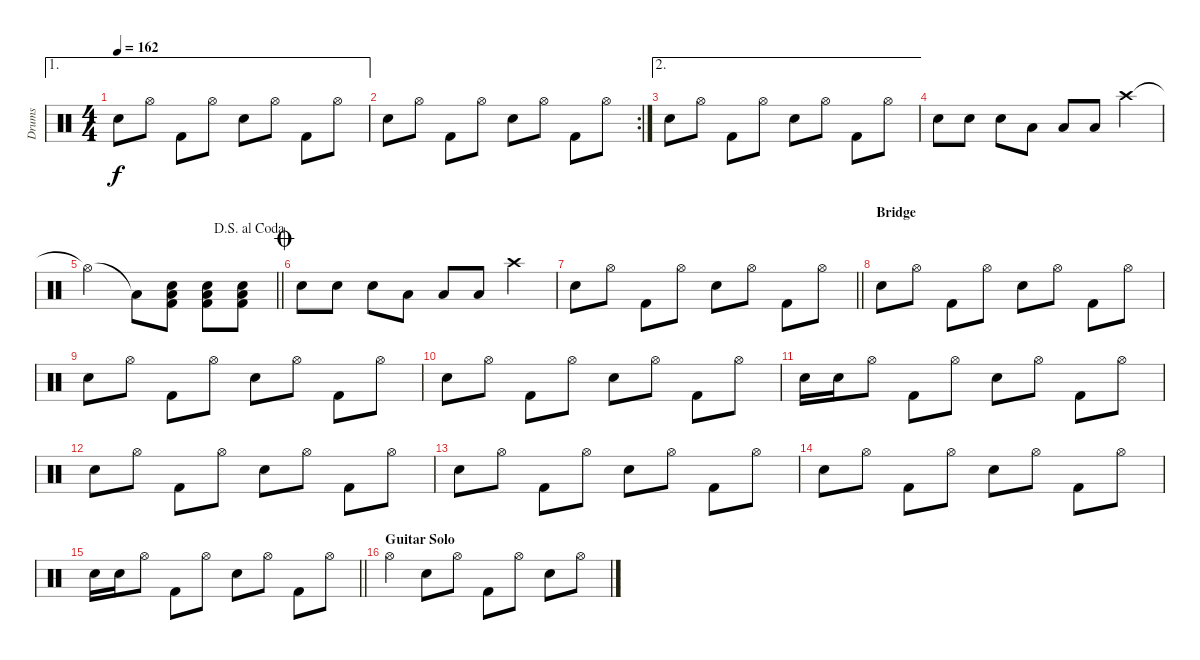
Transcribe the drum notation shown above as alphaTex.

\track ("Drums" "Drums") {instrument percussion}
\staff {score}
\articulation defaults
\ae 1
\ts (4 4)
\tempo 162
\clef neutral
\ks c "Electric Snare (hit)".8{dy f} "Hi-Hat (open)".8 "Kick (hit) 2".8 "Hi-Hat (open)".8 "Electric Snare (hit)".8 "Hi-Hat (open)".8 "Kick (hit) 2".8 "Hi-Hat (open)".8
|
\rc 2 "Electric Snare (hit)".8 "Hi-Hat (open)".8 "Kick (hit) 2".8 "Hi-Hat (open)".8 "Electric Snare (hit)".8 "Hi-Hat (open)".8 "Kick (hit) 2".8 "Hi-Hat (open)".8
|
\ae 2 "Electric Snare (hit)".8 "Hi-Hat (open)".8 "Kick (hit) 2".8 "Hi-Hat (open)".8 "Electric Snare (hit)".8 "Hi-Hat (open)".8 "Kick (hit) 2".8 "Hi-Hat (open)".8
|
"Electric Snare (hit)".8 "Electric Snare (hit)".8 "Electric Snare (hit)".8 "Low Tom (hit)".8 "Low Tom (hit)".8 "Low Tom (hit)".8 "Crash high (hit)".4 |
\jump dalsegnoalcoda
\barLineRight lightlight "Hi-Hat (open)"{t}.2 "Low Tom (hit)"{t}.8
("Low Tom (hit)" "Electric Snare (hit)" "Kick (hit) 2").8 ("Low Tom (hit)" "Electric Snare (hit)" "Kick (hit) 2").8 ("Low Tom (hit)" "Electric Snare (hit)" "Kick (hit) 2").8 |
\jump coda "Electric Snare (hit)".8 "Electric Snare (hit)".8 "Electric Snare (hit)".8 "Low Tom (hit)".8 "Low Tom (hit)".8 "Low Tom (hit)".8 "Crash high (hit)".4
|
\barLineRight lightlight "Electric Snare (hit)".8 "Hi-Hat (open)".8 "Kick (hit) 2".8 "Hi-Hat (open)".8 "Electric Snare (hit)".8 "Hi-Hat (open)".8 "Kick (hit) 2".8 "Hi-Hat (open)".8
|
\section ("" "Bridge")
"Electric Snare (hit)".8 "Hi-Hat (open)".8 "Kick (hit) 2".8 "Hi-Hat (open)".8 "Electric Snare (hit)".8 "Hi-Hat (open)".8 "Kick (hit) 2".8 "Hi-Hat (open)".8 |
"Electric Snare (hit)".8 "Hi-Hat (open)".8 "Kick (hit) 2".8 "Hi-Hat (open)".8 "Electric Snare (hit)".8 "Hi-Hat (open)".8 "Kick (hit) 2".8 "Hi-Hat (open)".8 |
"Electric Snare (hit)".8 "Hi-Hat (open)".8 "Kick (hit) 2".8 "Hi-Hat (open)".8 "Electric Snare (hit)".8 "Hi-Hat (open)".8 "Kick (hit) 2".8 "Hi-Hat (open)".8 |
"Electric Snare (hit)".16 "Electric Snare (hit)".16 "Hi-Hat (open)".8 "Kick (hit) 2".8 "Hi-Hat (open)".8 "Electric Snare (hit)".8 "Hi-Hat (open)".8 "Kick (hit) 2".8 "Hi-Hat (open)".8 |
"Electric Snare (hit)".8 "Hi-Hat (open)".8 "Kick (hit) 2".8 "Hi-Hat (open)".8 "Electric Snare (hit)".8 "Hi-Hat (open)".8 "Kick (hit) 2".8 "Hi-Hat (open)".8 |
"Electric Snare (hit)".8 "Hi-Hat (open)".8 "Kick (hit) 2".8 "Hi-Hat (open)".8 "Electric Snare (hit)".8 "Hi-Hat (open)".8 "Kick (hit) 2".8 "Hi-Hat (open)".8 |
"Electric Snare (hit)".8 "Hi-Hat (open)".8 "Kick (hit) 2".8 "Hi-Hat (open)".8 "Electric Snare (hit)".8 "Hi-Hat (open)".8 "Kick (hit) 2".8 "Hi-Hat (open)".8 |
\barLineRight lightlight "Electric Snare (hit)".16 "Electric Snare (hit)".16 "Hi-Hat (open)".8 "Kick (hit) 2".8 "Hi-Hat (open)".8 "Electric Snare (hit)".8 "Hi-Hat (open)".8 "Kick (hit) 2".8 "Hi-Hat (open)".8
|
\section ("" "Guitar Solo")
"Hi-Hat (open)".4 "Electric Snare (hit)".8 "Hi-Hat (open)".8 "Kick (hit) 2".8 "Hi-Hat (open)".8 "Electric Snare (hit)".8 "Hi-Hat (open)".8
